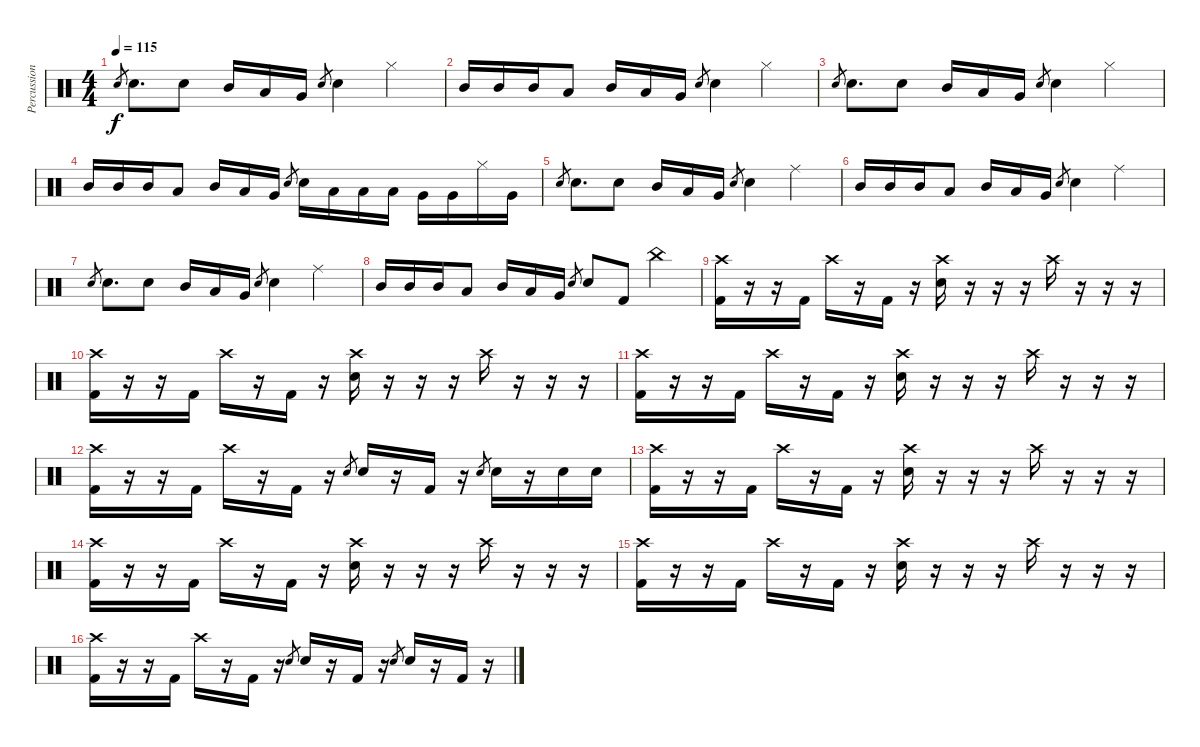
\track ("Percussion" "Percussion") {instrument percussion}
\staff {score}
\articulation defaults
\ts (4 4)
\tempo 115
\clef neutral
\ks c "Electric Snare (hit)".8{gr dy f} "Electric Snare (hit)".8{d} "Electric Snare (hit)".8 "Mid Tom (hit)".16 "Low Tom (hit)".16 "Very Low Tom (hit)".16 "Electric Snare (hit)".8{gr} "Electric Snare (hit)".4 "Hi-Hat (closed)".4
|
"Mid Tom (hit)".16 "Mid Tom (hit)".16 "Mid Tom (hit)".16 "Low Tom (hit)".8 "Mid Tom (hit)".16 "Low Tom (hit)".16 "Very Low Tom (hit)".16 "Electric Snare (hit)".8{gr} "Electric Snare (hit)".4 "Hi-Hat (closed)".4 |
"Electric Snare (hit)".8{gr} "Electric Snare (hit)".8{d} "Electric Snare (hit)".8 "Mid Tom (hit)".16 "Low Tom (hit)".16 "Very Low Tom (hit)".16 "Electric Snare (hit)".8{gr} "Electric Snare (hit)".4 "Hi-Hat (closed)".4 |
"Mid Tom (hit)".16 "Mid Tom (hit)".16 "Mid Tom (hit)".16 "Low Tom (hit)".8 "Mid Tom (hit)".16 "Low Tom (hit)".16 "Very Low Tom (hit)".16 "Electric Snare (hit)".8{gr} "Electric Snare (hit)".16 "Low Tom (hit)".16 "Low Tom (hit)".16 "Low Tom (hit)".16 "Very Low Tom (hit)".16 "Very Low Tom (hit)".16 "Hi-Hat (closed)".16 "Very Low Tom (hit)".16 |
"Electric Snare (hit)".8{gr} "Electric Snare (hit)".8{d} "Electric Snare (hit)".8 "Mid Tom (hit)".16 "Low Tom (hit)".16 "Very Low Tom (hit)".16 "Electric Snare (hit)".8{gr} "Electric Snare (hit)".4 "Ride (middle)".4 |
"Mid Tom (hit)".16 "Mid Tom (hit)".16 "Mid Tom (hit)".16 "Low Tom (hit)".8 "Mid Tom (hit)".16 "Low Tom (hit)".16 "Very Low Tom (hit)".16 "Electric Snare (hit)".8{gr} "Electric Snare (hit)".4 "Ride (middle)".4 |
"Electric Snare (hit)".8{gr} "Electric Snare (hit)".8{d} "Electric Snare (hit)".8 "Mid Tom (hit)".16 "Low Tom (hit)".16 "Very Low Tom (hit)".16 "Electric Snare (hit)".8{gr} "Electric Snare (hit)".4 "Ride (middle)".4 |
"Mid Tom (hit)".16 "Mid Tom (hit)".16 "Mid Tom (hit)".16 "Low Tom (hit)".8 "Mid Tom (hit)".16 "Low Tom (hit)".16 "Very Low Tom (hit)".16 "Electric Snare (hit)".8{gr} "Electric Snare (hit)".8 "Kick (hit) 2".8 "China (hit)".4 |
("Crash high (hit)" "Kick (hit) 2").16 r.16 r.16 "Kick (hit) 2".16 "Crash high (hit)".16 r.16 "Kick (hit) 2".16 r.16 ("Crash high (hit)" "Electric Snare (hit)").16 r.16 r.16 r.16 "Crash high (hit)".16 r.16 r.16 r.16 |
("Crash high (hit)" "Kick (hit) 2").16 r.16 r.16 "Kick (hit) 2".16 "Crash high (hit)".16 r.16 "Kick (hit) 2".16 r.16 ("Crash high (hit)" "Electric Snare (hit)").16 r.16 r.16 r.16 "Crash high (hit)".16 r.16 r.16 r.16 |
("Crash high (hit)" "Kick (hit) 2").16 r.16 r.16 "Kick (hit) 2".16 "Crash high (hit)".16 r.16 "Kick (hit) 2".16 r.16 ("Crash high (hit)" "Electric Snare (hit)").16 r.16 r.16 r.16 "Crash high (hit)".16 r.16 r.16 r.16 |
("Crash high (hit)" "Kick (hit) 2").16 r.16 r.16 "Kick (hit) 2".16 "Crash high (hit)".16 r.16 "Kick (hit) 2".16 r.16 "Electric Snare (hit)".8{gr} "Electric Snare (hit)".16 r.16 "Kick (hit) 2".16 r.16 "Electric Snare (hit)".8{gr} "Electric Snare (hit)".16 r.16 "Electric Snare (hit)".16 "Electric Snare (hit)".16 |
("Crash high (hit)" "Kick (hit) 2").16 r.16 r.16 "Kick (hit) 2".16 "Crash high (hit)".16 r.16 "Kick (hit) 2".16 r.16 ("Crash high (hit)" "Electric Snare (hit)").16 r.16 r.16 r.16 "Crash high (hit)".16 r.16 r.16 r.16 |
("Crash high (hit)" "Kick (hit) 2").16 r.16 r.16 "Kick (hit) 2".16 "Crash high (hit)".16 r.16 "Kick (hit) 2".16 r.16 ("Crash high (hit)" "Electric Snare (hit)").16 r.16 r.16 r.16 "Crash high (hit)".16 r.16 r.16 r.16 |
("Crash high (hit)" "Kick (hit) 2").16 r.16 r.16 "Kick (hit) 2".16 "Crash high (hit)".16 r.16 "Kick (hit) 2".16 r.16 ("Crash high (hit)" "Electric Snare (hit)").16 r.16 r.16 r.16 "Crash high (hit)".16 r.16 r.16 r.16 |
("Crash high (hit)" "Kick (hit) 2").16 r.16 r.16 "Kick (hit) 2".16 "Crash high (hit)".16 r.16 "Kick (hit) 2".16 r.16 "Electric Snare (hit)".8{gr} "Electric Snare (hit)".16 r.16 "Kick (hit) 2".16 r.16 "Electric Snare (hit)".8{gr} "Electric Snare (hit)".16 r.16 "Kick (hit) 2".16 r.16
